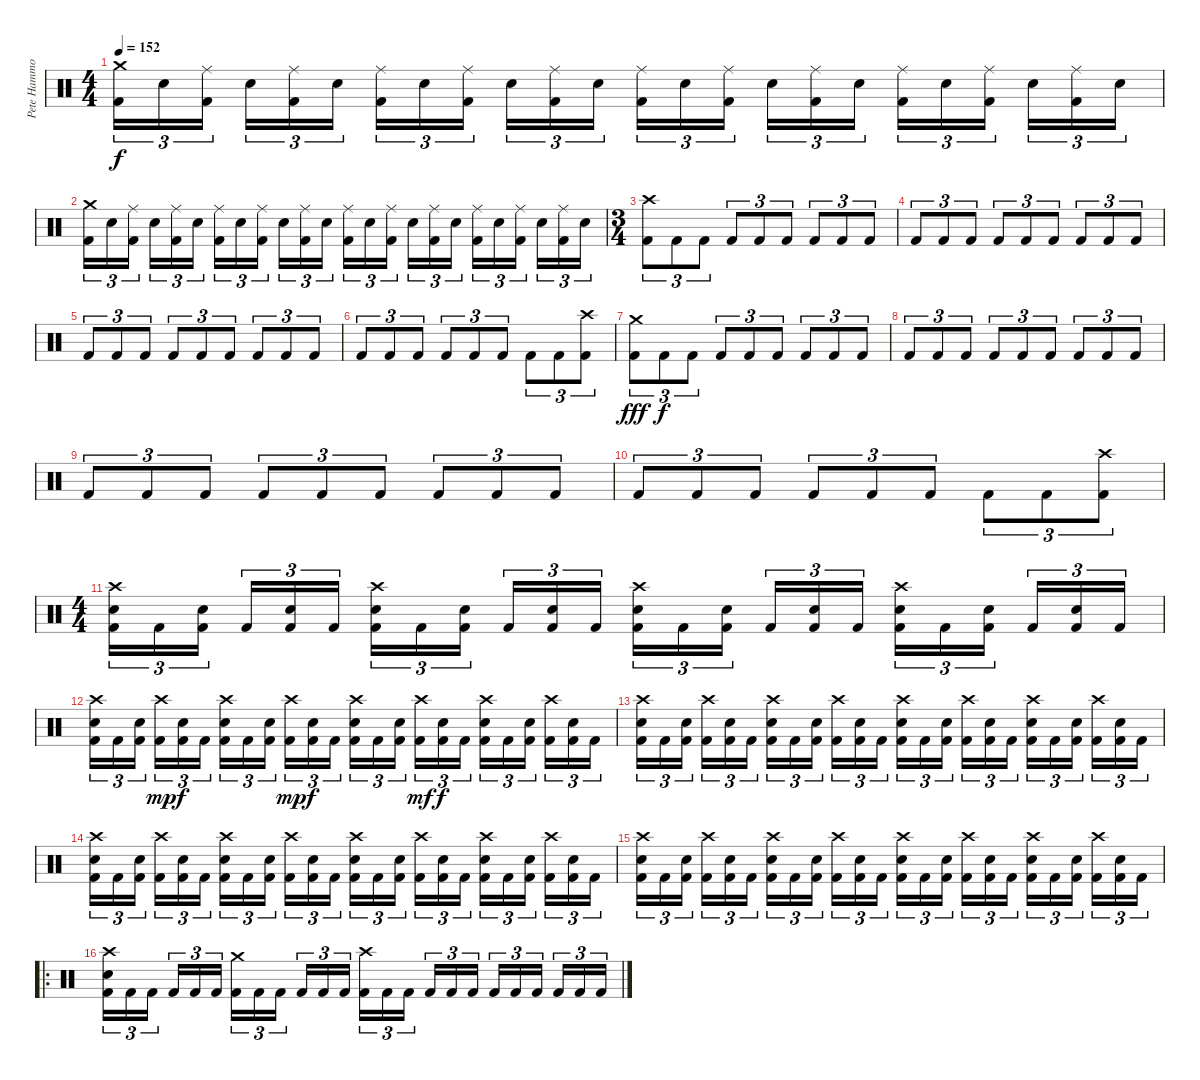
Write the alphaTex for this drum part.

\track ("Pete Hammoura" "Pete Hammo") {instrument percussion}
\staff {score}
\articulation defaults
\ts (4 4)
\tempo 152
\clef neutral
\ks c
("Crash medium (hit)" "Kick (hit) 2").16{tu (3 2) dy f} "Electric Snare (hit)".16{tu (3 2)} ("Ride (middle)" "Kick (hit) 2").16{tu (3 2)} "Electric Snare (hit)".16{tu (3 2)} ("Ride (middle)" "Kick (hit) 2").16{tu (3 2)} "Electric Snare (hit)".16{tu (3 2)} ("Ride (middle)" "Kick (hit) 2").16{tu (3 2)} "Electric Snare (hit)".16{tu (3 2)} ("Ride (middle)" "Kick (hit) 2").16{tu (3 2)} "Electric Snare (hit)".16{tu (3 2)} ("Ride (middle)" "Kick (hit) 2").16{tu (3 2)} "Electric Snare (hit)".16{tu (3 2)} ("Ride (middle)" "Kick (hit) 2").16{tu (3 2)} "Electric Snare (hit)".16{tu (3 2)} ("Ride (middle)" "Kick (hit) 2").16{tu (3 2)} "Electric Snare (hit)".16{tu (3 2)} ("Ride (middle)" "Kick (hit) 2").16{tu (3 2)} "Electric Snare (hit)".16{tu (3 2)} ("Ride (middle)" "Kick (hit) 2").16{tu (3 2)} "Electric Snare (hit)".16{tu (3 2)} ("Ride (middle)" "Kick (hit) 2").16{tu (3 2)} "Electric Snare (hit)".16{tu (3 2)} ("Ride (middle)" "Kick (hit) 2").16{tu (3 2)} "Electric Snare (hit)".16{tu (3 2)} |
("Crash medium (hit)" "Kick (hit) 2").16{tu (3 2)} "Electric Snare (hit)".16{tu (3 2)} ("Ride (middle)" "Kick (hit) 2").16{tu (3 2)} "Electric Snare (hit)".16{tu (3 2)} ("Ride (middle)" "Kick (hit) 2").16{tu (3 2)} "Electric Snare (hit)".16{tu (3 2)} ("Ride (middle)" "Kick (hit) 2").16{tu (3 2)} "Electric Snare (hit)".16{tu (3 2)} ("Ride (middle)" "Kick (hit) 2").16{tu (3 2)} "Electric Snare (hit)".16{tu (3 2)} ("Ride (middle)" "Kick (hit) 2").16{tu (3 2)} "Electric Snare (hit)".16{tu (3 2)} ("Ride (middle)" "Kick (hit) 2").16{tu (3 2)} "Electric Snare (hit)".16{tu (3 2)} ("Ride (middle)" "Kick (hit) 2").16{tu (3 2)} "Electric Snare (hit)".16{tu (3 2)} ("Ride (middle)" "Kick (hit) 2").16{tu (3 2)} "Electric Snare (hit)".16{tu (3 2)} ("Ride (middle)" "Kick (hit) 2").16{tu (3 2)} "Electric Snare (hit)".16{tu (3 2)} ("Ride (middle)" "Kick (hit) 2").16{tu (3 2)} "Electric Snare (hit)".16{tu (3 2)} ("Ride (middle)" "Kick (hit) 2").16{tu (3 2)} "Electric Snare (hit)".16{tu (3 2)} |
\ts (3 4)
("Crash high (hit)" "Kick (hit) 2").8{tu (3 2)} "Kick (hit) 2".8{tu (3 2)} "Kick (hit) 2".8{tu (3 2)} "Kick (hit) 2".8{tu (3 2)} "Kick (hit) 2".8{tu (3 2)} "Kick (hit) 2".8{tu (3 2)} "Kick (hit) 2".8{tu (3 2)} "Kick (hit) 2".8{tu (3 2)} "Kick (hit) 2".8{tu (3 2)} |
"Kick (hit) 2".8{tu (3 2)} "Kick (hit) 2".8{tu (3 2)} "Kick (hit) 2".8{tu (3 2)} "Kick (hit) 2".8{tu (3 2)} "Kick (hit) 2".8{tu (3 2)} "Kick (hit) 2".8{tu (3 2)} "Kick (hit) 2".8{tu (3 2)} "Kick (hit) 2".8{tu (3 2)} "Kick (hit) 2".8{tu (3 2)} |
"Kick (hit) 2".8{tu (3 2)} "Kick (hit) 2".8{tu (3 2)} "Kick (hit) 2".8{tu (3 2)} "Kick (hit) 2".8{tu (3 2)} "Kick (hit) 2".8{tu (3 2)} "Kick (hit) 2".8{tu (3 2)} "Kick (hit) 2".8{tu (3 2)} "Kick (hit) 2".8{tu (3 2)} "Kick (hit) 2".8{tu (3 2)} |
"Kick (hit) 2".8{tu (3 2)} "Kick (hit) 2".8{tu (3 2)} "Kick (hit) 2".8{tu (3 2)} "Kick (hit) 2".8{tu (3 2)} "Kick (hit) 2".8{tu (3 2)} "Kick (hit) 2".8{tu (3 2)} "Kick (hit) 2".8{tu (3 2)} "Kick (hit) 2".8{tu (3 2)} ("Crash high (hit)" "Kick (hit) 2").8{tu (3 2)} |
("Crash medium (hit)" "Kick (hit) 2").8{tu (3 2) dy fff} "Kick (hit) 2".8{tu (3 2) dy f} "Kick (hit) 2".8{tu (3 2)} "Kick (hit) 2".8{tu (3 2)} "Kick (hit) 2".8{tu (3 2)} "Kick (hit) 2".8{tu (3 2)} "Kick (hit) 2".8{tu (3 2)} "Kick (hit) 2".8{tu (3 2)} "Kick (hit) 2".8{tu (3 2)} |
"Kick (hit) 2".8{tu (3 2)} "Kick (hit) 2".8{tu (3 2)} "Kick (hit) 2".8{tu (3 2)} "Kick (hit) 2".8{tu (3 2)} "Kick (hit) 2".8{tu (3 2)} "Kick (hit) 2".8{tu (3 2)} "Kick (hit) 2".8{tu (3 2)} "Kick (hit) 2".8{tu (3 2)} "Kick (hit) 2".8{tu (3 2)} |
"Kick (hit) 2".8{tu (3 2)} "Kick (hit) 2".8{tu (3 2)} "Kick (hit) 2".8{tu (3 2)} "Kick (hit) 2".8{tu (3 2)} "Kick (hit) 2".8{tu (3 2)} "Kick (hit) 2".8{tu (3 2)} "Kick (hit) 2".8{tu (3 2)} "Kick (hit) 2".8{tu (3 2)} "Kick (hit) 2".8{tu (3 2)} |
"Kick (hit) 2".8{tu (3 2)} "Kick (hit) 2".8{tu (3 2)} "Kick (hit) 2".8{tu (3 2)} "Kick (hit) 2".8{tu (3 2)} "Kick (hit) 2".8{tu (3 2)} "Kick (hit) 2".8{tu (3 2)} "Kick (hit) 2".8{tu (3 2)} "Kick (hit) 2".8{tu (3 2)} ("Crash high (hit)" "Kick (hit) 2").8{tu (3 2)} |
\ts (4 4)
("Crash high (hit)" "Electric Snare (hit)" "Kick (hit) 2").16{tu (3 2)} "Kick (hit) 2".16{tu (3 2)} ("Electric Snare (hit)" "Kick (hit) 2").16{tu (3 2)} "Kick (hit) 2".16{tu (3 2)} ("Electric Snare (hit)" "Kick (hit) 2").16{tu (3 2)} "Kick (hit) 2".16{tu (3 2)} ("Crash high (hit)" "Electric Snare (hit)" "Kick (hit) 2").16{tu (3 2)} "Kick (hit) 2".16{tu (3 2)} ("Electric Snare (hit)" "Kick (hit) 2").16{tu (3 2)} "Kick (hit) 2".16{tu (3 2)} ("Electric Snare (hit)" "Kick (hit) 2").16{tu (3 2)} "Kick (hit) 2".16{tu (3 2)} ("Crash high (hit)" "Electric Snare (hit)" "Kick (hit) 2").16{tu (3 2)} "Kick (hit) 2".16{tu (3 2)} ("Electric Snare (hit)" "Kick (hit) 2").16{tu (3 2)} "Kick (hit) 2".16{tu (3 2)} ("Electric Snare (hit)" "Kick (hit) 2").16{tu (3 2)} "Kick (hit) 2".16{tu (3 2)} ("Crash high (hit)" "Electric Snare (hit)" "Kick (hit) 2").16{tu (3 2)} "Kick (hit) 2".16{tu (3 2)} ("Electric Snare (hit)" "Kick (hit) 2").16{tu (3 2)} "Kick (hit) 2".16{tu (3 2)} ("Electric Snare (hit)" "Kick (hit) 2").16{tu (3 2)} "Kick (hit) 2".16{tu (3 2)} |
("Crash high (hit)" "Electric Snare (hit)" "Kick (hit) 2").16{tu (3 2)} "Kick (hit) 2".16{tu (3 2)} ("Electric Snare (hit)" "Kick (hit) 2").16{tu (3 2)} ("Crash high (hit)" "Kick (hit) 2").16{tu (3 2) dy mp} ("Electric Snare (hit)" "Kick (hit) 2").16{tu (3 2) dy f} "Kick (hit) 2".16{tu (3 2)} ("Crash high (hit)" "Electric Snare (hit)" "Kick (hit) 2").16{tu (3 2)} "Kick (hit) 2".16{tu (3 2)} ("Electric Snare (hit)" "Kick (hit) 2").16{tu (3 2)} ("Crash high (hit)" "Kick (hit) 2").16{tu (3 2) dy mp} ("Electric Snare (hit)" "Kick (hit) 2").16{tu (3 2) dy f} "Kick (hit) 2".16{tu (3 2)} ("Crash high (hit)" "Electric Snare (hit)" "Kick (hit) 2").16{tu (3 2)} "Kick (hit) 2".16{tu (3 2)} ("Electric Snare (hit)" "Kick (hit) 2").16{tu (3 2)} ("Crash high (hit)" "Kick (hit) 2").16{tu (3 2) dy mf} ("Electric Snare (hit)" "Kick (hit) 2").16{tu (3 2) dy f} "Kick (hit) 2".16{tu (3 2)} ("Crash high (hit)" "Electric Snare (hit)" "Kick (hit) 2").16{tu (3 2)} "Kick (hit) 2".16{tu (3 2)} ("Electric Snare (hit)" "Kick (hit) 2").16{tu (3 2)} ("Crash high (hit)" "Kick (hit) 2").16{tu (3 2)} ("Electric Snare (hit)" "Kick (hit) 2").16{tu (3 2)} "Kick (hit) 2".16{tu (3 2)} |
("Crash high (hit)" "Electric Snare (hit)" "Kick (hit) 2").16{tu (3 2)} "Kick (hit) 2".16{tu (3 2)} ("Electric Snare (hit)" "Kick (hit) 2").16{tu (3 2)} ("Crash high (hit)" "Kick (hit) 2").16{tu (3 2)} ("Electric Snare (hit)" "Kick (hit) 2").16{tu (3 2)} "Kick (hit) 2".16{tu (3 2)} ("Crash high (hit)" "Electric Snare (hit)" "Kick (hit) 2").16{tu (3 2)} "Kick (hit) 2".16{tu (3 2)} ("Electric Snare (hit)" "Kick (hit) 2").16{tu (3 2)} ("Crash high (hit)" "Kick (hit) 2").16{tu (3 2)} ("Electric Snare (hit)" "Kick (hit) 2").16{tu (3 2)} "Kick (hit) 2".16{tu (3 2)} ("Crash high (hit)" "Electric Snare (hit)" "Kick (hit) 2").16{tu (3 2)} "Kick (hit) 2".16{tu (3 2)} ("Electric Snare (hit)" "Kick (hit) 2").16{tu (3 2)} ("Crash high (hit)" "Kick (hit) 2").16{tu (3 2)} ("Electric Snare (hit)" "Kick (hit) 2").16{tu (3 2)} "Kick (hit) 2".16{tu (3 2)} ("Crash high (hit)" "Electric Snare (hit)" "Kick (hit) 2").16{tu (3 2)} "Kick (hit) 2".16{tu (3 2)} ("Electric Snare (hit)" "Kick (hit) 2").16{tu (3 2)} ("Crash high (hit)" "Kick (hit) 2").16{tu (3 2)} ("Electric Snare (hit)" "Kick (hit) 2").16{tu (3 2)} "Kick (hit) 2".16{tu (3 2)} |
("Crash high (hit)" "Electric Snare (hit)" "Kick (hit) 2").16{tu (3 2)} "Kick (hit) 2".16{tu (3 2)} ("Electric Snare (hit)" "Kick (hit) 2").16{tu (3 2)} ("Crash high (hit)" "Kick (hit) 2").16{tu (3 2)} ("Electric Snare (hit)" "Kick (hit) 2").16{tu (3 2)} "Kick (hit) 2".16{tu (3 2)} ("Crash high (hit)" "Electric Snare (hit)" "Kick (hit) 2").16{tu (3 2)} "Kick (hit) 2".16{tu (3 2)} ("Electric Snare (hit)" "Kick (hit) 2").16{tu (3 2)} ("Crash high (hit)" "Kick (hit) 2").16{tu (3 2)} ("Electric Snare (hit)" "Kick (hit) 2").16{tu (3 2)} "Kick (hit) 2".16{tu (3 2)} ("Crash high (hit)" "Electric Snare (hit)" "Kick (hit) 2").16{tu (3 2)} "Kick (hit) 2".16{tu (3 2)} ("Electric Snare (hit)" "Kick (hit) 2").16{tu (3 2)} ("Crash high (hit)" "Kick (hit) 2").16{tu (3 2)} ("Electric Snare (hit)" "Kick (hit) 2").16{tu (3 2)} "Kick (hit) 2".16{tu (3 2)} ("Crash high (hit)" "Electric Snare (hit)" "Kick (hit) 2").16{tu (3 2)} "Kick (hit) 2".16{tu (3 2)} ("Electric Snare (hit)" "Kick (hit) 2").16{tu (3 2)} ("Crash high (hit)" "Kick (hit) 2").16{tu (3 2)} ("Electric Snare (hit)" "Kick (hit) 2").16{tu (3 2)} "Kick (hit) 2".16{tu (3 2)} |
("Crash high (hit)" "Electric Snare (hit)" "Kick (hit) 2").16{tu (3 2)} "Kick (hit) 2".16{tu (3 2)} ("Electric Snare (hit)" "Kick (hit) 2").16{tu (3 2)} ("Crash high (hit)" "Kick (hit) 2").16{tu (3 2)} ("Electric Snare (hit)" "Kick (hit) 2").16{tu (3 2)} "Kick (hit) 2".16{tu (3 2)} ("Crash high (hit)" "Electric Snare (hit)" "Kick (hit) 2").16{tu (3 2)} "Kick (hit) 2".16{tu (3 2)} ("Electric Snare (hit)" "Kick (hit) 2").16{tu (3 2)} ("Crash high (hit)" "Kick (hit) 2").16{tu (3 2)} ("Electric Snare (hit)" "Kick (hit) 2").16{tu (3 2)} "Kick (hit) 2".16{tu (3 2)} ("Crash high (hit)" "Electric Snare (hit)" "Kick (hit) 2").16{tu (3 2)} "Kick (hit) 2".16{tu (3 2)} ("Electric Snare (hit)" "Kick (hit) 2").16{tu (3 2)} ("Crash high (hit)" "Kick (hit) 2").16{tu (3 2)} ("Electric Snare (hit)" "Kick (hit) 2").16{tu (3 2)} "Kick (hit) 2".16{tu (3 2)} ("Crash high (hit)" "Electric Snare (hit)" "Kick (hit) 2").16{tu (3 2)} "Kick (hit) 2".16{tu (3 2)} ("Electric Snare (hit)" "Kick (hit) 2").16{tu (3 2)} ("Crash high (hit)" "Kick (hit) 2").16{tu (3 2)} ("Electric Snare (hit)" "Kick (hit) 2").16{tu (3 2)} "Kick (hit) 2".16{tu (3 2)} |
\ro
("Crash high (hit)" "Electric Snare (hit)" "Kick (hit) 2").16{tu (3 2)} "Kick (hit) 2".16{tu (3 2)} "Kick (hit) 2".16{tu (3 2)} "Kick (hit) 2".16{tu (3 2)} "Kick (hit) 2".16{tu (3 2)} "Kick (hit) 2".16{tu (3 2)} ("Crash medium (hit)" "Kick (hit) 2").16{tu (3 2)} "Kick (hit) 2".16{tu (3 2)} "Kick (hit) 2".16{tu (3 2)} "Kick (hit) 2".16{tu (3 2)} "Kick (hit) 2".16{tu (3 2)} "Kick (hit) 2".16{tu (3 2)} ("Crash high (hit)" "Kick (hit) 2").16{tu (3 2)} "Kick (hit) 2".16{tu (3 2)} "Kick (hit) 2".16{tu (3 2)} "Kick (hit) 2".16{tu (3 2)} "Kick (hit) 2".16{tu (3 2)} "Kick (hit) 2".16{tu (3 2)} "Kick (hit) 2".16{tu (3 2)} "Kick (hit) 2".16{tu (3 2)} "Kick (hit) 2".16{tu (3 2)} "Kick (hit) 2".16{tu (3 2)} "Kick (hit) 2".16{tu (3 2)} "Kick (hit) 2".16{tu (3 2)}
